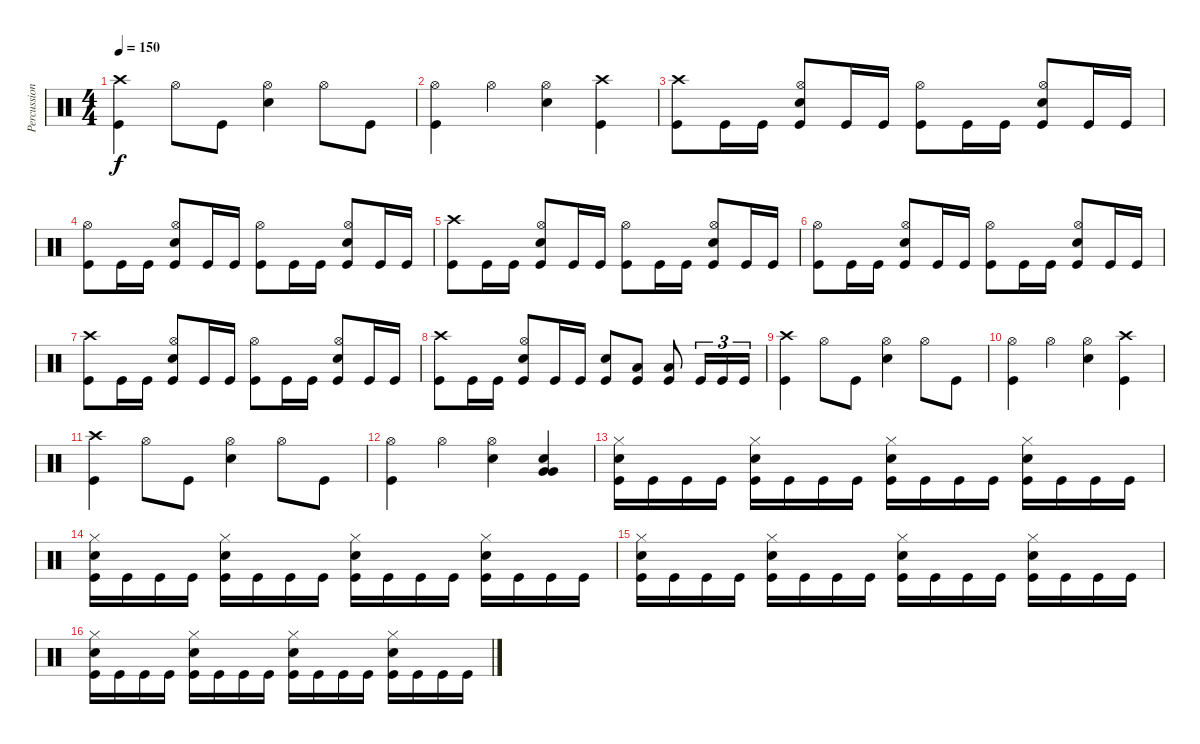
\track ("Percussion" "Percussion") {instrument percussion}
\staff {score}
\articulation defaults
\ts (4 4)
\tempo 150
\clef neutral
\ks c
("Kick (hit)" "Crash high (hit)").4{dy f} "Hi-Hat (open)".8 "Kick (hit)".8 ("Hi-Hat (open)" "Snare (hit) 2").4 "Hi-Hat (open)".8 "Kick (hit)".8 |
("Kick (hit)" "Hi-Hat (open)").4 "Hi-Hat (open)".4 ("Hi-Hat (open)" "Snare (hit) 2").4 ("Kick (hit)" "Crash high (hit)").4 |
("Kick (hit)" "Crash high (hit)").8 "Kick (hit)".16 "Kick (hit)".16 ("Kick (hit)" "Hi-Hat (open)" "Snare (hit) 2").8 "Kick (hit)".16 "Kick (hit)".16 ("Kick (hit)" "Hi-Hat (open)").8 "Kick (hit)".16 "Kick (hit)".16 ("Kick (hit)" "Hi-Hat (open)" "Snare (hit) 2").8 "Kick (hit)".16 "Kick (hit)".16 |
("Kick (hit)" "Hi-Hat (open)").8 "Kick (hit)".16 "Kick (hit)".16 ("Kick (hit)" "Hi-Hat (open)" "Snare (hit) 2").8 "Kick (hit)".16 "Kick (hit)".16 ("Kick (hit)" "Hi-Hat (open)").8 "Kick (hit)".16 "Kick (hit)".16 ("Kick (hit)" "Hi-Hat (open)" "Snare (hit) 2").8 "Kick (hit)".16 "Kick (hit)".16 |
("Kick (hit)" "Crash high (hit)").8 "Kick (hit)".16 "Kick (hit)".16 ("Kick (hit)" "Hi-Hat (open)" "Snare (hit) 2").8 "Kick (hit)".16 "Kick (hit)".16 ("Kick (hit)" "Hi-Hat (open)").8 "Kick (hit)".16 "Kick (hit)".16 ("Kick (hit)" "Hi-Hat (open)" "Snare (hit) 2").8 "Kick (hit)".16 "Kick (hit)".16 |
("Kick (hit)" "Hi-Hat (open)").8 "Kick (hit)".16 "Kick (hit)".16 ("Kick (hit)" "Hi-Hat (open)" "Snare (hit) 2").8 "Kick (hit)".16 "Kick (hit)".16 ("Kick (hit)" "Hi-Hat (open)").8 "Kick (hit)".16 "Kick (hit)".16 ("Kick (hit)" "Hi-Hat (open)" "Snare (hit) 2").8 "Kick (hit)".16 "Kick (hit)".16 |
("Kick (hit)" "Crash high (hit)").8 "Kick (hit)".16 "Kick (hit)".16 ("Kick (hit)" "Hi-Hat (open)" "Snare (hit) 2").8 "Kick (hit)".16 "Kick (hit)".16 ("Kick (hit)" "Hi-Hat (open)").8 "Kick (hit)".16 "Kick (hit)".16 ("Kick (hit)" "Hi-Hat (open)" "Snare (hit) 2").8 "Kick (hit)".16 "Kick (hit)".16 |
("Kick (hit)" "Crash high (hit)").8 "Kick (hit)".16 "Kick (hit)".16 ("Kick (hit)" "Hi-Hat (open)" "Snare (hit) 2").8 "Kick (hit)".16 "Kick (hit)".16 ("Kick (hit)" "Snare (hit) 2").8 ("Kick (hit)" "Low Tom (hit)").8 ("Kick (hit)" "Low Floor Tom (hit)").8 "Kick (hit)".16{tu (3 2)} "Kick (hit)".16{tu (3 2)} "Kick (hit)".16{tu (3 2)} |
("Kick (hit)" "Crash high (hit)").4 "Hi-Hat (open)".8 "Kick (hit)".8 ("Hi-Hat (open)" "Snare (hit) 2").4 "Hi-Hat (open)".8 "Kick (hit)".8 |
("Kick (hit)" "Hi-Hat (open)").4 "Hi-Hat (open)".4 ("Hi-Hat (open)" "Snare (hit) 2").4 ("Kick (hit)" "Crash high (hit)").4 |
("Kick (hit)" "Crash high (hit)").4 "Hi-Hat (open)".8 "Kick (hit)".8 ("Hi-Hat (open)" "Snare (hit) 2").4 "Hi-Hat (open)".8 "Kick (hit)".8 |
("Kick (hit)" "Hi-Hat (open)").4 "Hi-Hat (open)".4 ("Hi-Hat (open)" "Snare (hit) 2").4 ("Very Low Tom (hit)" "Very Low Tom (hit)" "Snare (hit) 2").4 |
("Kick (hit)" "Hi-Hat (closed)" "Snare (hit) 2").16 "Kick (hit)".16 "Kick (hit)".16 "Kick (hit)".16 ("Kick (hit)" "Hi-Hat (closed)" "Snare (hit) 2").16 "Kick (hit)".16 "Kick (hit)".16 "Kick (hit)".16 ("Kick (hit)" "Hi-Hat (closed)" "Snare (hit) 2").16 "Kick (hit)".16 "Kick (hit)".16 "Kick (hit)".16 ("Kick (hit)" "Hi-Hat (closed)" "Snare (hit) 2").16 "Kick (hit)".16 "Kick (hit)".16 "Kick (hit)".16 |
("Kick (hit)" "Hi-Hat (closed)" "Snare (hit) 2").16 "Kick (hit)".16 "Kick (hit)".16 "Kick (hit)".16 ("Kick (hit)" "Hi-Hat (closed)" "Snare (hit) 2").16 "Kick (hit)".16 "Kick (hit)".16 "Kick (hit)".16 ("Kick (hit)" "Hi-Hat (closed)" "Snare (hit) 2").16 "Kick (hit)".16 "Kick (hit)".16 "Kick (hit)".16 ("Kick (hit)" "Hi-Hat (closed)" "Snare (hit) 2").16 "Kick (hit)".16 "Kick (hit)".16 "Kick (hit)".16 |
("Kick (hit)" "Hi-Hat (closed)" "Snare (hit) 2").16 "Kick (hit)".16 "Kick (hit)".16 "Kick (hit)".16 ("Kick (hit)" "Hi-Hat (closed)" "Snare (hit) 2").16 "Kick (hit)".16 "Kick (hit)".16 "Kick (hit)".16 ("Kick (hit)" "Hi-Hat (closed)" "Snare (hit) 2").16 "Kick (hit)".16 "Kick (hit)".16 "Kick (hit)".16 ("Kick (hit)" "Hi-Hat (closed)" "Snare (hit) 2").16 "Kick (hit)".16 "Kick (hit)".16 "Kick (hit)".16 |
("Kick (hit)" "Hi-Hat (closed)" "Snare (hit) 2").16 "Kick (hit)".16 "Kick (hit)".16 "Kick (hit)".16 ("Kick (hit)" "Hi-Hat (closed)" "Snare (hit) 2").16 "Kick (hit)".16 "Kick (hit)".16 "Kick (hit)".16 ("Kick (hit)" "Hi-Hat (closed)" "Snare (hit) 2").16 "Kick (hit)".16 "Kick (hit)".16 "Kick (hit)".16 ("Kick (hit)" "Hi-Hat (closed)" "Snare (hit) 2").16 "Kick (hit)".16 "Kick (hit)".16 "Kick (hit)".16
